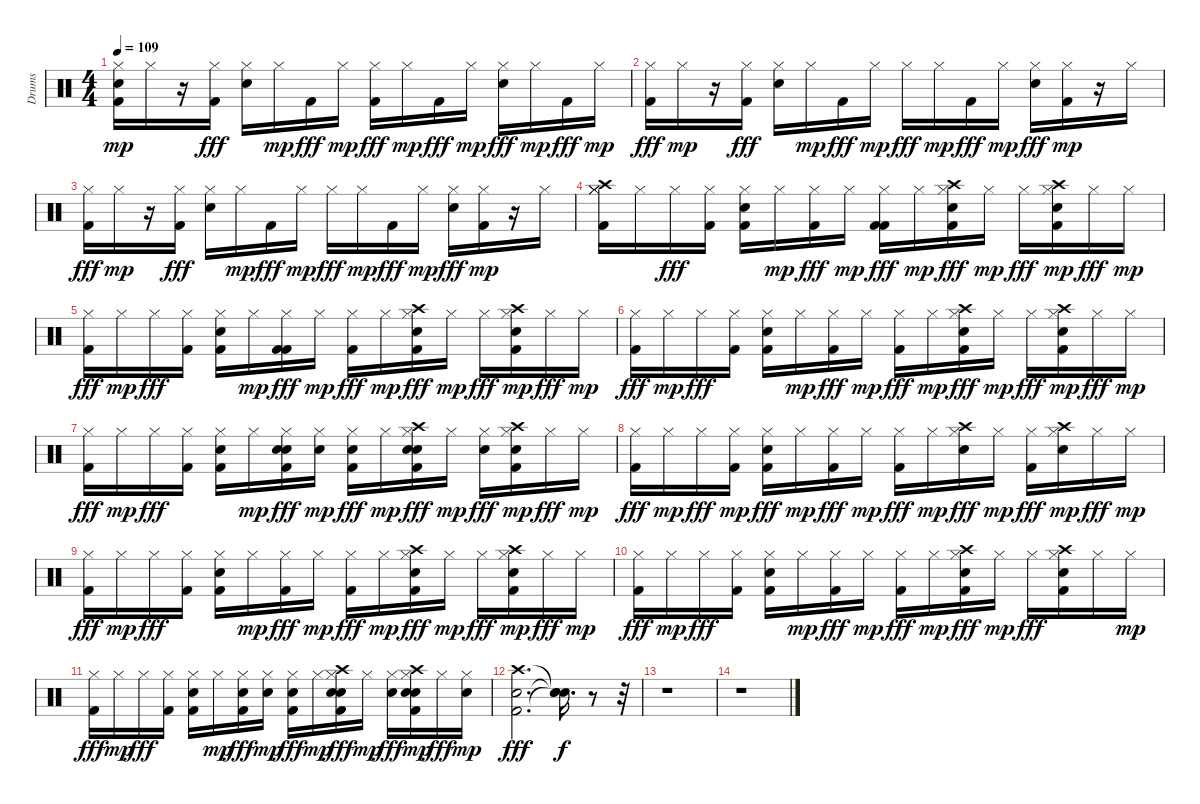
\track ("Drums" "Drums") {instrument percussion}
\staff {score}
\articulation defaults
\ts (4 4)
\tempo 109
\clef neutral
\ks c
("Kick (hit) 2" "Hi-Hat (closed)" "Snare (hit) 2").16{dy mp} "Hi-Hat (closed)".16 r.16 ("Hi-Hat (closed)" "Kick (hit) 2").16{dy fff} ("Hi-Hat (closed)" "Snare (hit) 2").16 "Hi-Hat (closed)".16{dy mp} "Kick (hit) 2".16{dy fff} "Hi-Hat (closed)".16{dy mp} ("Hi-Hat (closed)" "Kick (hit) 2").16{dy fff} "Hi-Hat (closed)".16{dy mp} "Kick (hit) 2".16{dy fff} "Hi-Hat (closed)".16{dy mp} ("Hi-Hat (closed)" "Snare (hit) 2").16{dy fff} "Hi-Hat (closed)".16{dy mp} "Kick (hit) 2".16{dy fff} "Hi-Hat (closed)".16{dy mp} |
("Hi-Hat (closed)" "Kick (hit) 2").16{dy fff} "Hi-Hat (closed)".16{dy mp} r.16 ("Hi-Hat (closed)" "Kick (hit) 2").16{dy fff} ("Hi-Hat (closed)" "Snare (hit) 2").16 "Hi-Hat (closed)".16{dy mp} "Kick (hit) 2".16{dy fff} "Hi-Hat (closed)".16{dy mp} "Hi-Hat (closed)".16{dy fff} "Hi-Hat (closed)".16{dy mp} "Kick (hit) 2".16{dy fff} "Hi-Hat (closed)".16{dy mp} ("Snare (hit) 2" "Hi-Hat (closed)").16{dy fff} ("Kick (hit) 2" "Hi-Hat (closed)").16{dy mp} r.16 "Hi-Hat (closed)".16 |
("Hi-Hat (closed)" "Kick (hit) 2").16{dy fff} "Hi-Hat (closed)".16{dy mp} r.16 ("Hi-Hat (closed)" "Kick (hit) 2").16{dy fff} ("Hi-Hat (closed)" "Snare (hit) 2").16 "Hi-Hat (closed)".16{dy mp} "Kick (hit) 2".16{dy fff} "Hi-Hat (closed)".16{dy mp} "Hi-Hat (closed)".16{dy fff} "Hi-Hat (closed)".16{dy mp} "Kick (hit) 2".16{dy fff} "Hi-Hat (closed)".16{dy mp} ("Snare (hit) 2" "Hi-Hat (closed)").16{dy fff} ("Kick (hit) 2" "Hi-Hat (closed)").16{dy mp} r.16 "Hi-Hat (closed)".16 |
("Crash high (hit)" "Kick (hit) 2" "Hi-Hat (closed)" "Hi-Hat (closed)" "Hi-Hat (closed)").16 "Hi-Hat (closed)".16 "Hi-Hat (closed)".16{dy fff} ("Hi-Hat (closed)" "Kick (hit) 2").16 ("Snare (hit) 2" "Kick (hit) 2" "Hi-Hat (closed)").16 "Hi-Hat (closed)".16{dy mp} ("Kick (hit) 2" "Hi-Hat (closed)").16{dy fff} "Hi-Hat (closed)".16{dy mp} ("Kick (hit) 2" "Kick (hit) 2" "Hi-Hat (closed)").16{dy fff} "Hi-Hat (closed)".16{dy mp} ("Crash high (hit)" "Snare (hit) 2" "Kick (hit) 2" "Hi-Hat (closed)").16{dy fff} "Hi-Hat (closed)".16{dy mp} "Hi-Hat (closed)".16{dy fff} ("Crash high (hit)" "Snare (hit) 2" "Kick (hit) 2" "Hi-Hat (closed)").16{dy mp} "Hi-Hat (closed)".16{dy fff} "Hi-Hat (closed)".16{dy mp} |
("Kick (hit) 2" "Hi-Hat (closed)").16{dy fff} "Hi-Hat (closed)".16{dy mp} "Hi-Hat (closed)".16{dy fff} ("Hi-Hat (closed)" "Kick (hit) 2").16 ("Snare (hit) 2" "Kick (hit) 2" "Hi-Hat (closed)").16 "Hi-Hat (closed)".16{dy mp} ("Kick (hit) 2" "Kick (hit) 2" "Hi-Hat (closed)").16{dy fff} "Hi-Hat (closed)".16{dy mp} ("Kick (hit) 2" "Hi-Hat (closed)").16{dy fff} "Hi-Hat (closed)".16{dy mp} ("Hi-Hat (closed)" "Crash high (hit)" "Snare (hit) 2" "Kick (hit) 2").16{dy fff} "Hi-Hat (closed)".16{dy mp} "Hi-Hat (closed)".16{dy fff} ("Kick (hit) 2" "Crash high (hit)" "Snare (hit) 2" "Hi-Hat (closed)").16{dy mp} "Hi-Hat (closed)".16{dy fff} "Hi-Hat (closed)".16{dy mp} |
("Kick (hit) 2" "Hi-Hat (closed)").16{dy fff} "Hi-Hat (closed)".16{dy mp} "Hi-Hat (closed)".16{dy fff} ("Hi-Hat (closed)" "Kick (hit) 2").16 ("Hi-Hat (closed)" "Snare (hit) 2" "Kick (hit) 2").16 "Hi-Hat (closed)".16{dy mp} ("Kick (hit) 2" "Hi-Hat (closed)").16{dy fff} "Hi-Hat (closed)".16{dy mp} ("Hi-Hat (closed)" "Kick (hit) 2").16{dy fff} "Hi-Hat (closed)".16{dy mp} ("Hi-Hat (closed)" "Crash high (hit)" "Kick (hit) 2" "Snare (hit) 2").16{dy fff} "Hi-Hat (closed)".16{dy mp} "Hi-Hat (closed)".16{dy fff} ("Crash high (hit)" "Kick (hit) 2" "Snare (hit) 2" "Hi-Hat (closed)").16{dy mp} "Hi-Hat (closed)".16{dy fff} "Hi-Hat (closed)".16{dy mp} |
("Kick (hit) 2" "Hi-Hat (closed)").16{dy fff} "Hi-Hat (closed)".16{dy mp} "Hi-Hat (closed)".16{dy fff} ("Hi-Hat (closed)" "Kick (hit) 2").16 ("Hi-Hat (closed)" "Snare (hit) 2" "Kick (hit) 2").16 "Hi-Hat (closed)".16{dy mp} ("Hi-Hat (closed)" "Kick (hit) 2" "Snare (hit) 2" "Snare (hit) 2").16{dy fff} ("Hi-Hat (closed)" "Snare (hit) 2").16{dy mp} ("Snare (hit) 2" "Hi-Hat (closed)" "Kick (hit) 2").16{dy fff} "Hi-Hat (closed)".16{dy mp} ("Snare (hit) 2" "Hi-Hat (closed)" "Crash high (hit)" "Snare (hit) 2" "Kick (hit) 2").16{dy fff} "Hi-Hat (closed)".16{dy mp} ("Snare (hit) 2" "Hi-Hat (closed)").16{dy fff} ("Kick (hit) 2" "Crash high (hit)" "Snare (hit) 2" "Hi-Hat (closed)").16{dy mp} "Hi-Hat (closed)".16{dy fff} "Hi-Hat (closed)".16{dy mp} |
("Hi-Hat (closed)" "Kick (hit) 2").16{dy fff} "Hi-Hat (closed)".16{dy mp} "Hi-Hat (closed)".16{dy fff} ("Kick (hit) 2" "Hi-Hat (closed)").16{dy mp} ("Hi-Hat (closed)" "Snare (hit) 2" "Kick (hit) 2").16{dy fff} "Hi-Hat (closed)".16{dy mp} ("Kick (hit) 2" "Hi-Hat (closed)").16{dy fff} "Hi-Hat (closed)".16{dy mp} ("Kick (hit) 2" "Hi-Hat (closed)").16{dy fff} "Hi-Hat (closed)".16{dy mp} ("Snare (hit) 2" "Crash high (hit)" "Hi-Hat (closed)").16{dy fff} "Hi-Hat (closed)".16{dy mp} ("Kick (hit) 2" "Hi-Hat (closed)").16{dy fff} ("Snare (hit) 2" "Crash high (hit)" "Hi-Hat (closed)").16{dy mp} "Hi-Hat (closed)".16{dy fff} "Hi-Hat (closed)".16{dy mp} |
("Kick (hit) 2" "Hi-Hat (closed)").16{dy fff} "Hi-Hat (closed)".16{dy mp} "Hi-Hat (closed)".16{dy fff} ("Hi-Hat (closed)" "Kick (hit) 2").16 ("Snare (hit) 2" "Kick (hit) 2" "Hi-Hat (closed)").16 "Hi-Hat (closed)".16{dy mp} ("Hi-Hat (closed)" "Kick (hit) 2").16{dy fff} "Hi-Hat (closed)".16{dy mp} ("Kick (hit) 2" "Hi-Hat (closed)").16{dy fff} "Hi-Hat (closed)".16{dy mp} ("Hi-Hat (closed)" "Snare (hit) 2" "Kick (hit) 2" "Crash high (hit)").16{dy fff} "Hi-Hat (closed)".16{dy mp} "Hi-Hat (closed)".16{dy fff} ("Snare (hit) 2" "Kick (hit) 2" "Crash high (hit)" "Hi-Hat (closed)").16{dy mp} "Hi-Hat (closed)".16{dy fff} "Hi-Hat (closed)".16{dy mp} |
("Kick (hit) 2" "Hi-Hat (closed)").16{dy fff} "Hi-Hat (closed)".16{dy mp} "Hi-Hat (closed)".16{dy fff} ("Hi-Hat (closed)" "Kick (hit) 2").16 ("Snare (hit) 2" "Kick (hit) 2" "Hi-Hat (closed)").16 "Hi-Hat (closed)".16{dy mp} ("Kick (hit) 2" "Hi-Hat (closed)").16{dy fff} "Hi-Hat (closed)".16{dy mp} ("Kick (hit) 2" "Hi-Hat (closed)").16{dy fff} "Hi-Hat (closed)".16{dy mp} ("Crash high (hit)" "Kick (hit) 2" "Snare (hit) 2" "Hi-Hat (closed)").16{dy fff} "Hi-Hat (closed)".16{dy mp} "Hi-Hat (closed)".16{dy fff} ("Hi-Hat (closed)" "Crash high (hit)" "Kick (hit) 2" "Snare (hit) 2").16 "Hi-Hat (closed)".16 "Hi-Hat (closed)".16{dy mp} |
("Kick (hit) 2" "Hi-Hat (closed)").16{dy fff} "Hi-Hat (closed)".16{dy mp} "Hi-Hat (closed)".16{dy fff} ("Hi-Hat (closed)" "Kick (hit) 2").16 ("Snare (hit) 2" "Kick (hit) 2" "Hi-Hat (closed)").16 "Hi-Hat (closed)".16{dy mp} ("Kick (hit) 2" "Hi-Hat (closed)" "Snare (hit) 2").16{dy fff} ("Snare (hit) 2" "Hi-Hat (closed)").16{dy mp} ("Snare (hit) 2" "Kick (hit) 2" "Hi-Hat (closed)").16{dy fff} "Hi-Hat (closed)".16{dy mp} ("Snare (hit) 2" "Crash high (hit)" "Kick (hit) 2" "Snare (hit) 2" "Hi-Hat (closed)").16{dy fff} "Hi-Hat (closed)".16{dy mp} ("Hi-Hat (closed)" "Snare (hit) 2").16{dy fff} ("Snare (hit) 2" "Crash high (hit)" "Snare (hit) 2" "Kick (hit) 2" "Hi-Hat (closed)").16{dy mp} "Hi-Hat (closed)".16{dy fff} ("Snare (hit) 2" "Hi-Hat (closed)").16{dy mp} |
("Snare (hit) 2" "Kick (hit) 2" "Crash high (hit)").2{d dy fff} ("Snare (hit)"{t} "Snare (hit)"{t} "Snare (hit)"{t}).16{d dy f} r.8 r.32 |
r.1 |
r.1
